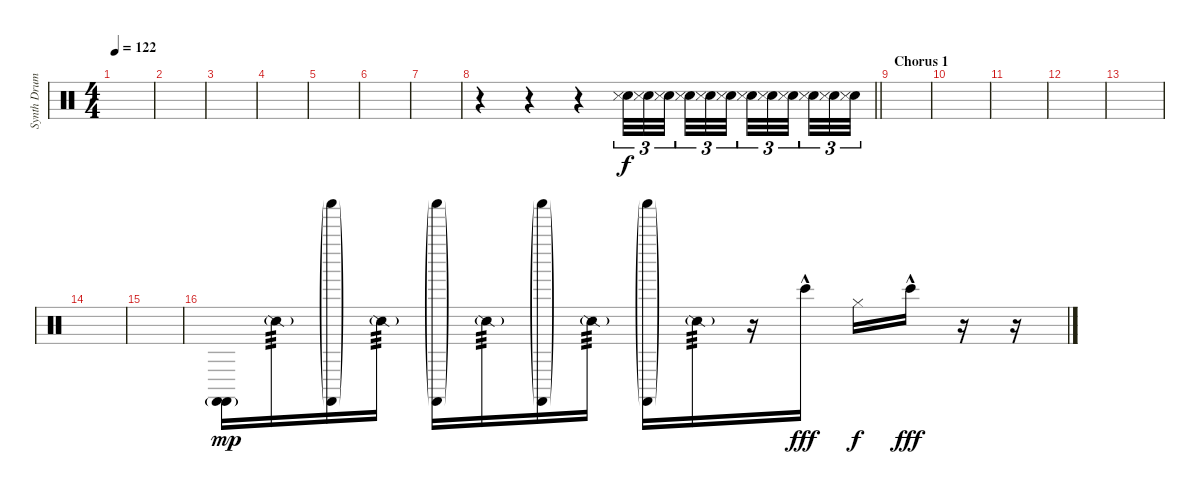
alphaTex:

\track ("Synth Drums" "Synth Drum") {instrument percussion}
\staff {score}
\articulation defaults
\ts (4 4)
\tempo 122
\clef neutral
\ks c
|
|
|
|
|
|
|
\barLineRight lightlight
r.4 r.4 r.4 ("Hand Clap (hit)" "Metronome (hit)").32{tu (3 2) dy f} ("Hand Clap (hit)" "Metronome (hit)").32{tu (3 2)} ("Hand Clap (hit)" "Metronome (hit)").32{tu (3 2) beam splitsecondary} ("Hand Clap (hit)" "Metronome (hit)").32{tu (3 2)} ("Hand Clap (hit)" "Metronome (hit)").32{tu (3 2)} ("Hand Clap (hit)" "Metronome (hit)").32{tu (3 2) beam splitsecondary} ("Hand Clap (hit)" "Metronome (hit)").32{tu (3 2)} ("Hand Clap (hit)" "Metronome (hit)").32{tu (3 2)} ("Hand Clap (hit)" "Metronome (hit)").32{tu (3 2) beam splitsecondary} ("Hand Clap (hit)" "Metronome (hit)").32{tu (3 2)} ("Hand Clap (hit)" "Metronome (hit)").32{tu (3 2)} ("Hand Clap (hit)" "Metronome (hit)").32{tu (3 2)} |
\section ("" "Chorus 1")
|
|
|
|
|
|
|
("Castanets (hit)"{g} "Castanets (hit)"{g}).16{dy mp} "Snare (side stick) 2"{g}.16{tp 3} ("Castanets (hit)"{g} "Shaker (hit)"{g}).16 "Snare (side stick) 2"{g}.16{tp 3} ("Castanets (hit)"{g} "Shaker (hit)"{g}).16 "Snare (side stick) 2"{g}.16{tp 3} ("Castanets (hit)"{g} "Shaker (hit)"{g}).16 "Snare (side stick) 2"{g}.16{tp 3} ("Castanets (hit)"{g} "Shaker (hit)"{g}).16 "Snare (side stick) 2"{g}.16{tp 3} r.16 "Bongo High (hit)"{hac}.16{dy fff} "Hi-Hat (closed)".16{dy f} "Bongo High (hit)"{hac}.16{dy fff} r.16 r.16
